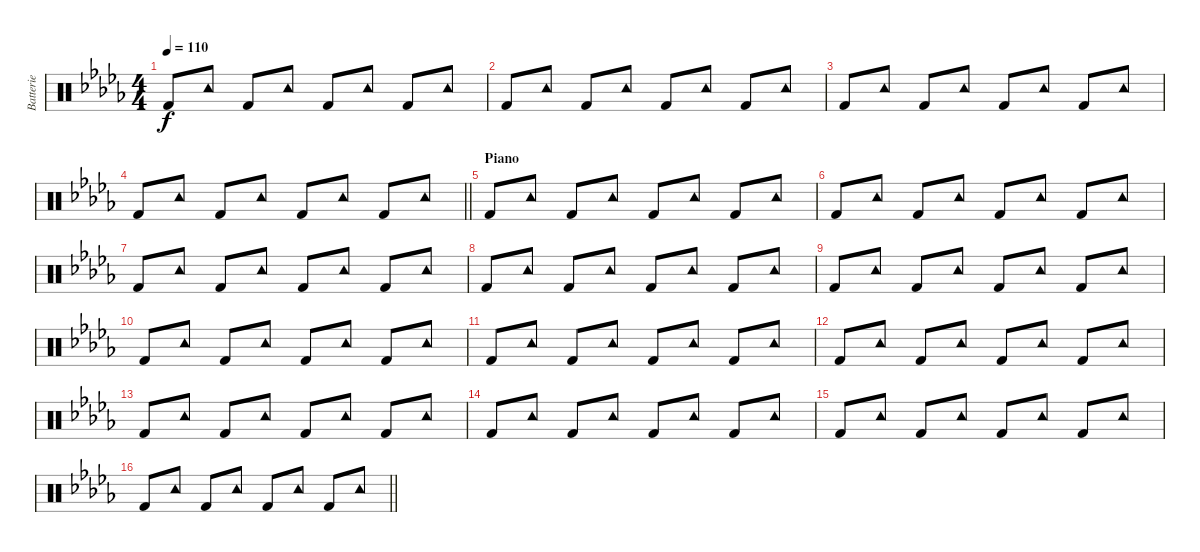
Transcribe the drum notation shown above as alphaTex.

\track ("Batterie" "Batterie") {instrument percussion}
\staff {score}
\articulation defaults
\ts (4 4)
\tempo 110
\clef neutral
\ks bbminor "Kick (hit) 2".8{dy f} "Tambourine (hit)".8 "Kick (hit) 2".8 "Tambourine (hit)".8 "Kick (hit) 2".8 "Tambourine (hit)".8 "Kick (hit) 2".8 "Tambourine (hit)".8
|
"Kick (hit) 2".8 "Tambourine (hit)".8 "Kick (hit) 2".8 "Tambourine (hit)".8 "Kick (hit) 2".8 "Tambourine (hit)".8 "Kick (hit) 2".8 "Tambourine (hit)".8 |
"Kick (hit) 2".8 "Tambourine (hit)".8 "Kick (hit) 2".8 "Tambourine (hit)".8 "Kick (hit) 2".8 "Tambourine (hit)".8 "Kick (hit) 2".8 "Tambourine (hit)".8 |
\barLineRight lightlight "Kick (hit) 2".8 "Tambourine (hit)".8 "Kick (hit) 2".8 "Tambourine (hit)".8 "Kick (hit) 2".8 "Tambourine (hit)".8 "Kick (hit) 2".8 "Tambourine (hit)".8
|
\section ("" "Piano")
"Kick (hit) 2".8 "Tambourine (hit)".8 "Kick (hit) 2".8 "Tambourine (hit)".8 "Kick (hit) 2".8 "Tambourine (hit)".8 "Kick (hit) 2".8 "Tambourine (hit)".8 |
"Kick (hit) 2".8 "Tambourine (hit)".8 "Kick (hit) 2".8 "Tambourine (hit)".8 "Kick (hit) 2".8 "Tambourine (hit)".8 "Kick (hit) 2".8 "Tambourine (hit)".8 |
"Kick (hit) 2".8 "Tambourine (hit)".8 "Kick (hit) 2".8 "Tambourine (hit)".8 "Kick (hit) 2".8 "Tambourine (hit)".8 "Kick (hit) 2".8 "Tambourine (hit)".8 |
"Kick (hit) 2".8 "Tambourine (hit)".8 "Kick (hit) 2".8 "Tambourine (hit)".8 "Kick (hit) 2".8 "Tambourine (hit)".8 "Kick (hit) 2".8 "Tambourine (hit)".8 |
"Kick (hit) 2".8 "Tambourine (hit)".8 "Kick (hit) 2".8 "Tambourine (hit)".8 "Kick (hit) 2".8 "Tambourine (hit)".8 "Kick (hit) 2".8 "Tambourine (hit)".8 |
"Kick (hit) 2".8 "Tambourine (hit)".8 "Kick (hit) 2".8 "Tambourine (hit)".8 "Kick (hit) 2".8 "Tambourine (hit)".8 "Kick (hit) 2".8 "Tambourine (hit)".8 |
"Kick (hit) 2".8 "Tambourine (hit)".8 "Kick (hit) 2".8 "Tambourine (hit)".8 "Kick (hit) 2".8 "Tambourine (hit)".8 "Kick (hit) 2".8 "Tambourine (hit)".8 |
"Kick (hit) 2".8 "Tambourine (hit)".8 "Kick (hit) 2".8 "Tambourine (hit)".8 "Kick (hit) 2".8 "Tambourine (hit)".8 "Kick (hit) 2".8 "Tambourine (hit)".8 |
"Kick (hit) 2".8 "Tambourine (hit)".8 "Kick (hit) 2".8 "Tambourine (hit)".8 "Kick (hit) 2".8 "Tambourine (hit)".8 "Kick (hit) 2".8 "Tambourine (hit)".8 |
"Kick (hit) 2".8 "Tambourine (hit)".8 "Kick (hit) 2".8 "Tambourine (hit)".8 "Kick (hit) 2".8 "Tambourine (hit)".8 "Kick (hit) 2".8 "Tambourine (hit)".8 |
"Kick (hit) 2".8 "Tambourine (hit)".8 "Kick (hit) 2".8 "Tambourine (hit)".8 "Kick (hit) 2".8 "Tambourine (hit)".8 "Kick (hit) 2".8 "Tambourine (hit)".8 |
\barLineRight lightlight "Kick (hit) 2".8 "Tambourine (hit)".8 "Kick (hit) 2".8 "Tambourine (hit)".8 "Kick (hit) 2".8 "Tambourine (hit)".8 "Kick (hit) 2".8 "Tambourine (hit)".8
